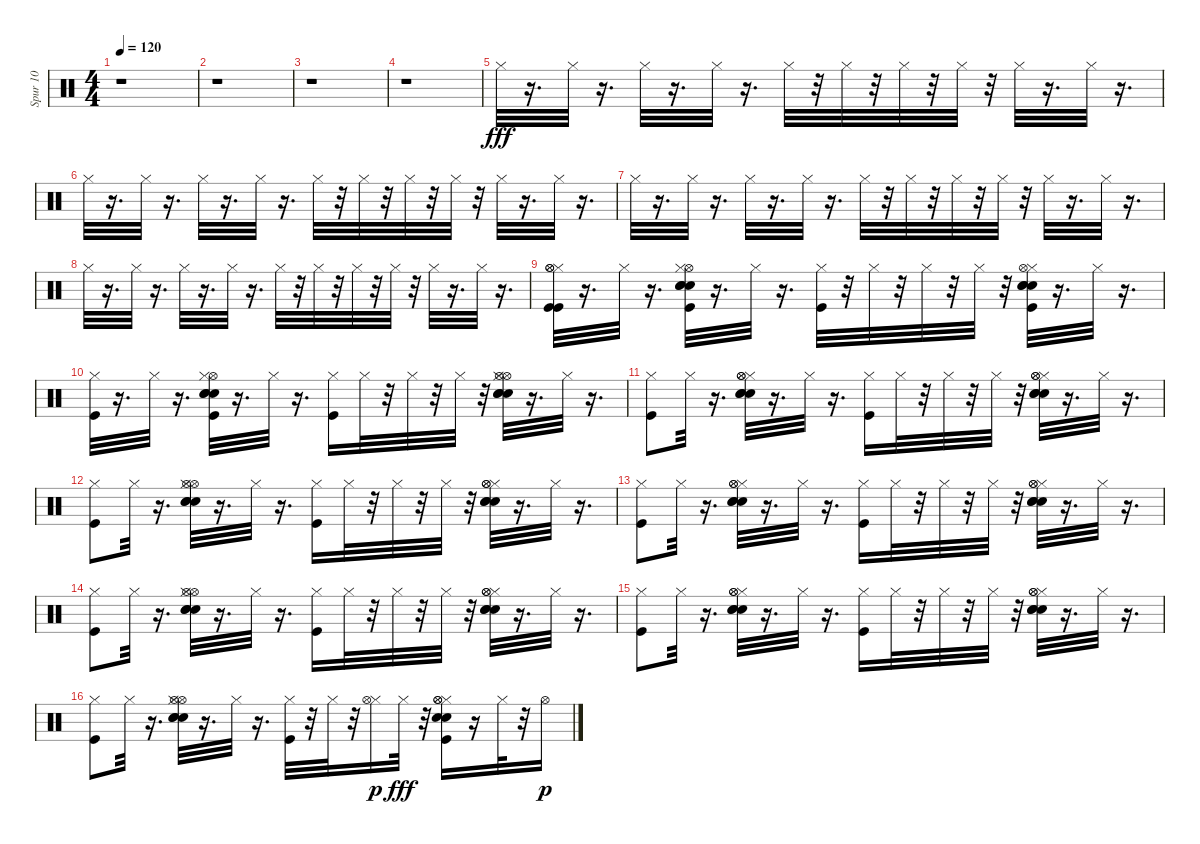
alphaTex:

\track ("Spur 10" "Spur 10") {instrument percussion}
\staff {score}
\articulation defaults
\ts (4 4)
\tempo 120
\clef neutral
\ks c
r.1{dy fff} |
r.1 |
r.1 |
r.1 |
"Hi-Hat (closed)".32 r.16{d} "Hi-Hat (closed)".32 r.16{d} "Hi-Hat (closed)".32 r.16{d} "Hi-Hat (closed)".32 r.16{d} "Hi-Hat (closed)".32 r.32 "Hi-Hat (closed)".32 r.32 "Hi-Hat (closed)".32 r.32 "Hi-Hat (closed)".32 r.32 "Hi-Hat (closed)".32 r.16{d} "Hi-Hat (closed)".32 r.16{d} |
"Hi-Hat (closed)".32 r.16{d} "Hi-Hat (closed)".32 r.16{d} "Hi-Hat (closed)".32 r.16{d} "Hi-Hat (closed)".32 r.16{d} "Hi-Hat (closed)".32 r.32 "Hi-Hat (closed)".32 r.32 "Hi-Hat (closed)".32 r.32 "Hi-Hat (closed)".32 r.32 "Hi-Hat (closed)".32 r.16{d} "Hi-Hat (closed)".32 r.16{d} |
"Hi-Hat (closed)".32 r.16{d} "Hi-Hat (closed)".32 r.16{d} "Hi-Hat (closed)".32 r.16{d} "Hi-Hat (closed)".32 r.16{d} "Hi-Hat (closed)".32 r.32 "Hi-Hat (closed)".32 r.32 "Hi-Hat (closed)".32 r.32 "Hi-Hat (closed)".32 r.32 "Hi-Hat (closed)".32 r.16{d} "Hi-Hat (closed)".32 r.16{d} |
"Hi-Hat (closed)".32 r.16{d} "Hi-Hat (closed)".32 r.16{d} "Hi-Hat (closed)".32 r.16{d} "Hi-Hat (closed)".32 r.16{d} "Hi-Hat (closed)".32 r.32 "Hi-Hat (closed)".32 r.32 "Hi-Hat (closed)".32 r.32 "Hi-Hat (closed)".32 r.32 "Hi-Hat (closed)".32 r.16{d} "Hi-Hat (closed)".32 r.16{d} |
("Kick (hit)" "Hi-Hat (closed)" "Hi-Hat (open)" "Kick (hit)" "Hi-Hat (open)").32{balance 7} r.16{d} "Hi-Hat (closed)".32 r.16{d} ("Snare (hit) 2" "Hi-Hat (open)" "Kick (hit)" "Snare (hit) 2" "Snare (hit) 2" "Hi-Hat (closed)").32 r.16{d} "Hi-Hat (closed)".32 r.16{d} ("Kick (hit)" "Hi-Hat (closed)").32 r.32 "Hi-Hat (closed)".32 r.32 "Hi-Hat (closed)".32 r.32 "Hi-Hat (closed)".32 r.32 ("Snare (hit) 2" "Snare (hit) 2" "Kick (hit)" "Snare (hit) 2" "Hi-Hat (closed)" "Hi-Hat (open)").32 r.16{d} "Hi-Hat (closed)".32 r.16{d} |
("Hi-Hat (closed)" "Kick (hit)").32 r.16{d} "Hi-Hat (closed)".32 r.16{d} ("Snare (hit) 2" "Snare (hit) 2" "Hi-Hat (open)" "Kick (hit)" "Snare (hit) 2" "Hi-Hat (closed)").32 r.16{d} "Hi-Hat (closed)".32 r.16{d} ("Hi-Hat (closed)" "Kick (hit)").16 "Hi-Hat (closed)".32 r.32 "Hi-Hat (closed)".32 r.32 "Hi-Hat (closed)".32 r.32 ("Hi-Hat (open)" "Snare (hit) 2" "Snare (hit) 2" "Hi-Hat (closed)" "Snare (hit) 2" "Hi-Hat (open)").32 r.16{d} "Hi-Hat (closed)".32 r.16{d} |
("Kick (hit)" "Hi-Hat (closed)").8 "Hi-Hat (closed)".32 r.16{d} ("Snare (hit) 2" "Snare (hit) 2" "Hi-Hat (closed)" "Snare (hit) 2" "Hi-Hat (open)" "Hi-Hat (open)").32 r.16{d} "Hi-Hat (closed)".32 r.16{d} ("Hi-Hat (closed)" "Kick (hit)").16 "Hi-Hat (closed)".32 r.32 "Hi-Hat (closed)".32 r.32 "Hi-Hat (closed)".32 r.32 ("Hi-Hat (closed)" "Snare (hit) 2" "Hi-Hat (open)" "Hi-Hat (open)" "Snare (hit) 2" "Snare (hit) 2").32 r.16{d} "Hi-Hat (closed)".32 r.16{d} |
("Hi-Hat (closed)" "Kick (hit)").8 "Hi-Hat (closed)".32 r.16{d} ("Hi-Hat (open)" "Hi-Hat (closed)" "Snare (hit) 2" "Hi-Hat (open)" "Snare (hit) 2" "Snare (hit) 2").32 r.16{d} "Hi-Hat (closed)".32 r.16{d} ("Kick (hit)" "Hi-Hat (closed)").16 "Hi-Hat (closed)".32 r.32 "Hi-Hat (closed)".32 r.32 "Hi-Hat (closed)".32 r.32 ("Snare (hit) 2" "Hi-Hat (closed)" "Hi-Hat (open)" "Snare (hit) 2" "Hi-Hat (open)" "Snare (hit) 2").32 r.16{d} "Hi-Hat (closed)".32 r.16{d} |
("Kick (hit)" "Hi-Hat (closed)").8 "Hi-Hat (closed)".32 r.16{d} ("Snare (hit) 2" "Snare (hit) 2" "Hi-Hat (closed)" "Snare (hit) 2" "Hi-Hat (open)" "Hi-Hat (open)").32 r.16{d} "Hi-Hat (closed)".32 r.16{d} ("Hi-Hat (closed)" "Kick (hit)").16 "Hi-Hat (closed)".32 r.32 "Hi-Hat (closed)".32 r.32 "Hi-Hat (closed)".32 r.32 ("Hi-Hat (closed)" "Snare (hit) 2" "Hi-Hat (open)" "Hi-Hat (open)" "Snare (hit) 2" "Snare (hit) 2").32 r.16{d} "Hi-Hat (closed)".32 r.16{d} |
("Hi-Hat (closed)" "Kick (hit)").8 "Hi-Hat (closed)".32 r.16{d} ("Hi-Hat (open)" "Hi-Hat (closed)" "Snare (hit) 2" "Hi-Hat (open)" "Snare (hit) 2" "Snare (hit) 2").32 r.16{d} "Hi-Hat (closed)".32 r.16{d} ("Kick (hit)" "Hi-Hat (closed)").16 "Hi-Hat (closed)".32 r.32 "Hi-Hat (closed)".32 r.32 "Hi-Hat (closed)".32 r.32 ("Snare (hit) 2" "Hi-Hat (closed)" "Hi-Hat (open)" "Snare (hit) 2" "Hi-Hat (open)" "Snare (hit) 2").32 r.16{d} "Hi-Hat (closed)".32 r.16{d} |
("Kick (hit)" "Hi-Hat (closed)").8 "Hi-Hat (closed)".32 r.16{d} ("Snare (hit) 2" "Snare (hit) 2" "Hi-Hat (closed)" "Snare (hit) 2" "Hi-Hat (open)" "Hi-Hat (open)").32 r.16{d} "Hi-Hat (closed)".32 r.16{d} ("Hi-Hat (closed)" "Kick (hit)").16 "Hi-Hat (closed)".32 r.32 "Hi-Hat (closed)".32 r.32 "Hi-Hat (closed)".32 r.32 ("Hi-Hat (closed)" "Snare (hit) 2" "Hi-Hat (open)" "Hi-Hat (open)" "Snare (hit) 2" "Snare (hit) 2").32 r.16{d} "Hi-Hat (closed)".32 r.16{d} |
("Hi-Hat (closed)" "Kick (hit)").8 "Hi-Hat (closed)".32 r.16{d} ("Hi-Hat (open)" "Hi-Hat (closed)" "Snare (hit) 2" "Hi-Hat (open)" "Snare (hit) 2" "Snare (hit) 2").32 r.16{d} "Hi-Hat (closed)".32 r.16{d} ("Kick (hit)" "Hi-Hat (closed)").32 r.32 "Hi-Hat (closed)".32 r.32 ("Hi-Hat (closed)" "Hi-Hat (open)").16{dy p} "Hi-Hat (closed)".32{dy fff} r.32 ("Snare (hit) 2" "Hi-Hat (closed)" "Hi-Hat (open)" "Snare (hit) 2" "Hi-Hat (open)" "Kick (hit)").16 r.16 "Hi-Hat (closed)".32 r.32 "Hi-Hat (open)".16{dy p}
